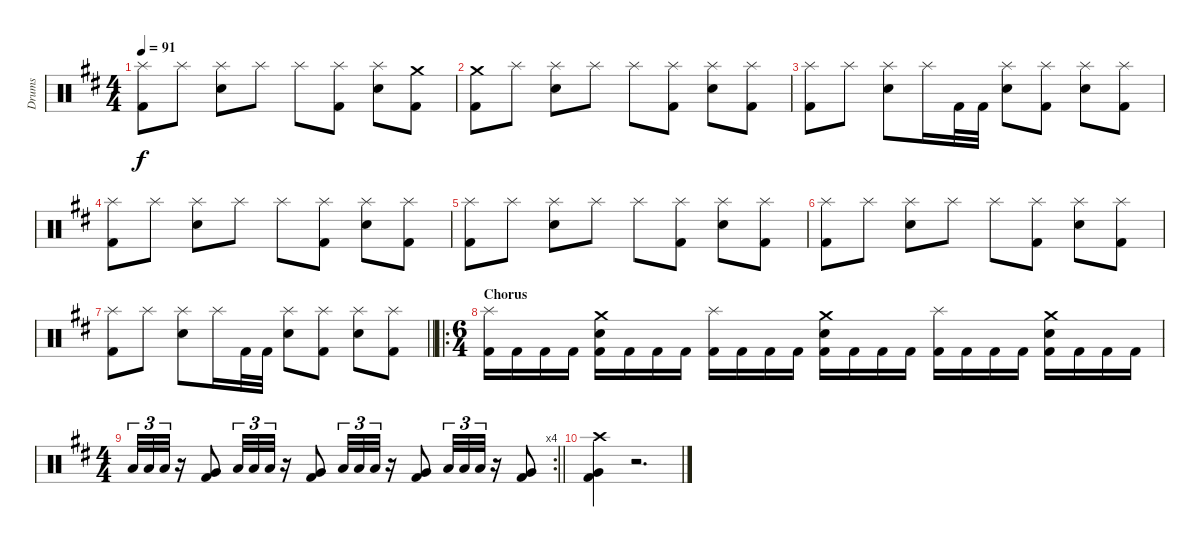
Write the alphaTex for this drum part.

\track ("Drums" "Drums") {instrument percussion}
\staff {score}
\articulation defaults
\ts (4 4)
\tempo 91
\clef neutral
\ks bminor
("Splash (hit)" "Kick (hit) 2").8{dy f} "Splash (hit)".8 ("Splash (hit)" "Snare (hit) 2").8 "Splash (hit)".8 "Splash (hit)".8 ("Splash (hit)" "Kick (hit) 2").8 ("Splash (hit)" "Snare (hit) 2").8 ("Crash medium (hit)" "Kick (hit) 2").8 |
("Crash medium (hit)" "Kick (hit) 2").8 "Splash (hit)".8 ("Splash (hit)" "Snare (hit) 2").8 "Splash (hit)".8 "Splash (hit)".8 ("Splash (hit)" "Kick (hit) 2").8 ("Splash (hit)" "Snare (hit) 2").8 ("Splash (hit)" "Kick (hit) 2").8 |
("Splash (hit)" "Kick (hit) 2").8 "Splash (hit)".8 ("Splash (hit)" "Snare (hit) 2").8 "Splash (hit)".16 "Kick (hit) 2".32 "Kick (hit) 2".32 ("Splash (hit)" "Snare (hit) 2").8 ("Splash (hit)" "Kick (hit) 2").8 ("Splash (hit)" "Snare (hit) 2").8 ("Splash (hit)" "Kick (hit) 2").8 |
("Splash (hit)" "Kick (hit) 2").8 "Splash (hit)".8 ("Splash (hit)" "Snare (hit) 2").8 "Splash (hit)".8 "Splash (hit)".8 ("Splash (hit)" "Kick (hit) 2").8 ("Splash (hit)" "Snare (hit) 2").8 ("Splash (hit)" "Kick (hit) 2").8 |
("Splash (hit)" "Kick (hit) 2").8 "Splash (hit)".8 ("Splash (hit)" "Snare (hit) 2").8 "Splash (hit)".8 "Splash (hit)".8 ("Splash (hit)" "Kick (hit) 2").8 ("Splash (hit)" "Snare (hit) 2").8 ("Splash (hit)" "Kick (hit) 2").8 |
("Splash (hit)" "Kick (hit) 2").8 "Splash (hit)".8 ("Splash (hit)" "Snare (hit) 2").8 "Splash (hit)".8 "Splash (hit)".8 ("Splash (hit)" "Kick (hit) 2").8 ("Splash (hit)" "Snare (hit) 2").8 ("Splash (hit)" "Kick (hit) 2").8 |
\barLineRight lightlight
("Splash (hit)" "Kick (hit) 2").8 "Splash (hit)".8 ("Splash (hit)" "Snare (hit) 2").8 "Splash (hit)".16 "Kick (hit) 2".32 "Kick (hit) 2".32 ("Splash (hit)" "Snare (hit) 2").8 ("Splash (hit)" "Kick (hit) 2").8 ("Splash (hit)" "Snare (hit) 2").8 ("Splash (hit)" "Kick (hit) 2").8 |
\ro
\ts (6 4)
\section ("" "Chorus")
("Splash (hit)" "Kick (hit) 2").16 "Kick (hit) 2".16 "Kick (hit) 2".16 "Kick (hit) 2".16 ("Crash medium (hit)" "Snare (hit) 2" "Kick (hit) 2").16 "Kick (hit) 2".16 "Kick (hit) 2".16 "Kick (hit) 2".16 ("Splash (hit)" "Kick (hit) 2").16 "Kick (hit) 2".16 "Kick (hit) 2".16 "Kick (hit) 2".16 ("Crash medium (hit)" "Snare (hit) 2" "Kick (hit) 2").16 "Kick (hit) 2".16 "Kick (hit) 2".16 "Kick (hit) 2".16 ("Splash (hit)" "Kick (hit) 2").16 "Kick (hit) 2".16 "Kick (hit) 2".16 "Kick (hit) 2".16 ("Crash medium (hit)" "Snare (hit) 2" "Kick (hit) 2").16 "Kick (hit) 2".16 "Kick (hit) 2".16 "Kick (hit) 2".16 |
\rc 4
\ts (4 4)
\barLineRight lightlight "Low Tom (hit)".32{tu (3 2)} "Low Tom (hit)".32{tu (3 2)} "Low Tom (hit)".32{tu (3 2)}
r.16 ("Very Low Tom (hit)" "Kick (hit) 2").8 "Low Tom (hit)".32{tu (3 2)} "Low Tom (hit)".32{tu (3 2)} "Low Tom (hit)".32{tu (3 2)} r.16 ("Very Low Tom (hit)" "Kick (hit) 2").8 "Low Tom (hit)".32{tu (3 2)} "Low Tom (hit)".32{tu (3 2)} "Low Tom (hit)".32{tu (3 2)} r.16 ("Very Low Tom (hit)" "Kick (hit) 2").8 "Low Tom (hit)".32{tu (3 2)} "Low Tom (hit)".32{tu (3 2)} "Low Tom (hit)".32{tu (3 2)} r.16 ("Very Low Tom (hit)" "Kick (hit) 2").8 |
("Crash high (hit)" "Very Low Tom (hit)" "Kick (hit) 2").4 r.2{d}
